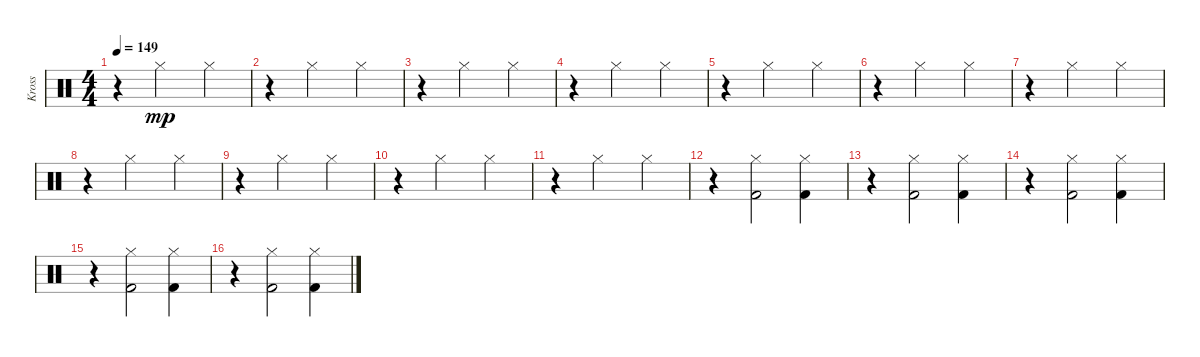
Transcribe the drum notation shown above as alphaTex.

\track ("Kross" "Kross") {instrument percussion}
\staff {score}
\articulation defaults
\ts (4 4)
\tempo 149
\clef neutral
\ks c
r.4{dy mp} "Hi-Hat (closed)".2 "Hi-Hat (closed)".4 |
r.4 "Hi-Hat (closed)".2 "Hi-Hat (closed)".4 |
r.4 "Hi-Hat (closed)".2 "Hi-Hat (closed)".4 |
r.4 "Hi-Hat (closed)".2 "Hi-Hat (closed)".4 |
r.4 "Hi-Hat (closed)".2 "Hi-Hat (closed)".4 |
r.4 "Hi-Hat (closed)".2 "Hi-Hat (closed)".4 |
r.4 "Hi-Hat (closed)".2 "Hi-Hat (closed)".4 |
r.4 "Hi-Hat (closed)".2 "Hi-Hat (closed)".4 |
r.4 "Hi-Hat (closed)".2 "Hi-Hat (closed)".4 |
r.4 "Hi-Hat (closed)".2 "Hi-Hat (closed)".4 |
r.4 "Hi-Hat (closed)".2 "Hi-Hat (closed)".4 |
r.4 ("Hi-Hat (closed)" "Kick (hit) 2").2 ("Hi-Hat (closed)" "Kick (hit) 2").4 |
r.4 ("Hi-Hat (closed)" "Kick (hit) 2").2 ("Hi-Hat (closed)" "Kick (hit) 2").4 |
r.4 ("Hi-Hat (closed)" "Kick (hit) 2").2 ("Hi-Hat (closed)" "Kick (hit) 2").4 |
r.4 ("Hi-Hat (closed)" "Kick (hit) 2").2 ("Hi-Hat (closed)" "Kick (hit) 2").4 |
r.4 ("Hi-Hat (closed)" "Kick (hit) 2").2 ("Hi-Hat (closed)" "Kick (hit) 2").4
